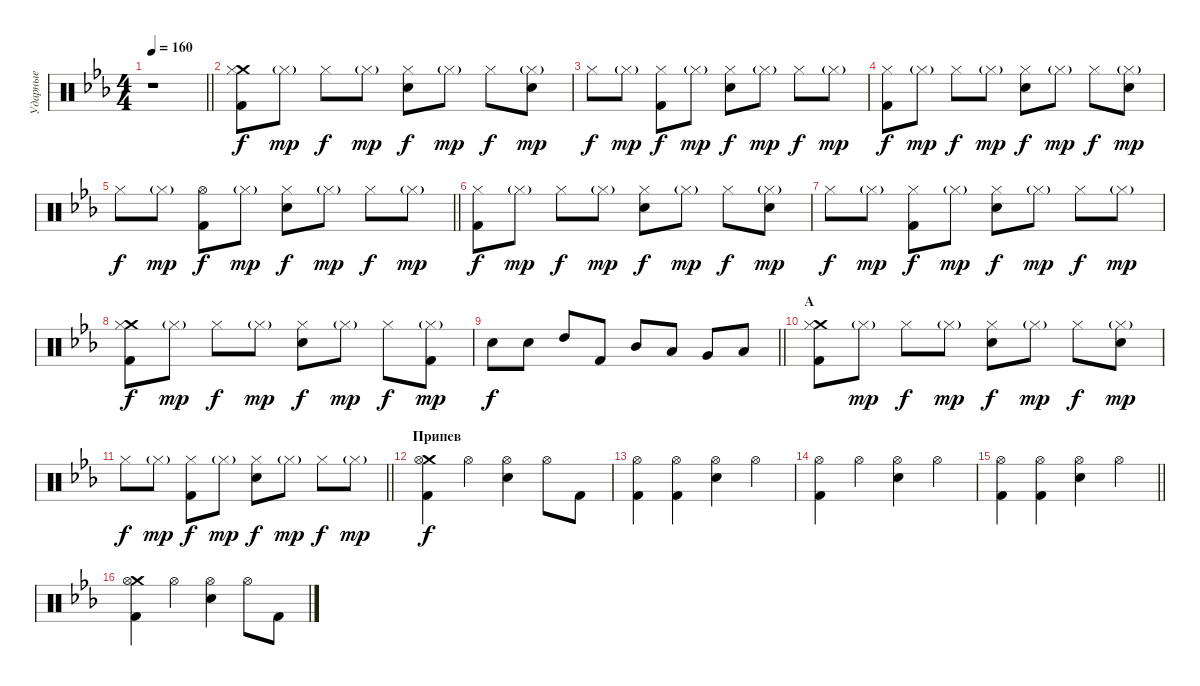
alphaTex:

\track ("Ударные" "Ударные") {instrument percussion}
\staff {score}
\articulation defaults
\ts (4 4)
\tempo 160
\clef neutral
\barLineRight lightlight
\ks cminor
r.1{dy mp} |
("Crash medium (hit)" "Kick (hit) 2" "Hi-Hat (closed)").8{dy f} "Hi-Hat (closed)"{g}.8{dy mp} "Hi-Hat (closed)".8{dy f} "Hi-Hat (closed)"{g}.8{dy mp} ("Electric Snare (hit)" "Hi-Hat (closed)").8{dy f} "Hi-Hat (closed)"{g}.8{dy mp} "Hi-Hat (closed)".8{dy f} ("Electric Snare (hit)" "Hi-Hat (closed)"{g}).8{dy mp} |
"Hi-Hat (closed)".8{dy f} "Hi-Hat (closed)"{g}.8{dy mp} ("Kick (hit) 2" "Hi-Hat (closed)").8{dy f} "Hi-Hat (closed)"{g}.8{dy mp} ("Electric Snare (hit)" "Hi-Hat (closed)").8{dy f} "Hi-Hat (closed)"{g}.8{dy mp} "Hi-Hat (closed)".8{dy f} "Hi-Hat (closed)"{g}.8{dy mp} |
("Kick (hit) 2" "Hi-Hat (closed)").8{dy f} "Hi-Hat (closed)"{g}.8{dy mp} "Hi-Hat (closed)".8{dy f} "Hi-Hat (closed)"{g}.8{dy mp} ("Electric Snare (hit)" "Hi-Hat (closed)").8{dy f} "Hi-Hat (closed)"{g}.8{dy mp} "Hi-Hat (closed)".8{dy f} ("Electric Snare (hit)" "Hi-Hat (closed)"{g}).8{dy mp} |
\barLineRight lightlight "Hi-Hat (closed)".8{dy f} "Hi-Hat (closed)"{g}.8{dy mp}
("Kick (hit) 2" "Hi-Hat (open)").8{dy f} "Hi-Hat (closed)"{g}.8{dy mp} ("Electric Snare (hit)" "Hi-Hat (closed)").8{dy f} "Hi-Hat (closed)"{g}.8{dy mp} "Hi-Hat (closed)".8{dy f} "Hi-Hat (closed)"{g}.8{dy mp} |
("Kick (hit) 2" "Hi-Hat (closed)").8{dy f} "Hi-Hat (closed)"{g}.8{dy mp} "Hi-Hat (closed)".8{dy f} "Hi-Hat (closed)"{g}.8{dy mp} ("Electric Snare (hit)" "Hi-Hat (closed)").8{dy f} "Hi-Hat (closed)"{g}.8{dy mp} "Hi-Hat (closed)".8{dy f} ("Electric Snare (hit)" "Hi-Hat (closed)"{g}).8{dy mp} |
"Hi-Hat (closed)".8{dy f} "Hi-Hat (closed)"{g}.8{dy mp} ("Kick (hit) 2" "Hi-Hat (closed)").8{dy f} "Hi-Hat (closed)"{g}.8{dy mp} ("Electric Snare (hit)" "Hi-Hat (closed)").8{dy f} "Hi-Hat (closed)"{g}.8{dy mp} "Hi-Hat (closed)".8{dy f} "Hi-Hat (closed)"{g}.8{dy mp} |
("Crash medium (hit)" "Kick (hit) 2" "Hi-Hat (closed)").8{dy f} "Hi-Hat (closed)"{g}.8{dy mp} "Hi-Hat (closed)".8{dy f} "Hi-Hat (closed)"{g}.8{dy mp} ("Electric Snare (hit)" "Hi-Hat (closed)").8{dy f} "Hi-Hat (closed)"{g}.8{dy mp} "Hi-Hat (closed)".8{dy f} ("Kick (hit) 2" "Hi-Hat (closed)"{g}).8{dy mp} |
\barLineRight lightlight "Electric Snare (hit)".8{dy f} "Electric Snare (hit)".8 "High Tom (hit)".8 "Kick (hit) 2".8 "Mid Tom (hit)".8 "Low Tom (hit)".8 "Very Low Tom (hit)".8 "Low Floor Tom (hit)".8
|
\section ("" "A")
("Crash medium (hit)" "Kick (hit) 2" "Hi-Hat (closed)").8 "Hi-Hat (closed)"{g}.8{dy mp} "Hi-Hat (closed)".8{dy f} "Hi-Hat (closed)"{g}.8{dy mp} ("Electric Snare (hit)" "Hi-Hat (closed)").8{dy f} "Hi-Hat (closed)"{g}.8{dy mp} "Hi-Hat (closed)".8{dy f} ("Electric Snare (hit)" "Hi-Hat (closed)"{g}).8{dy mp} |
\barLineRight lightlight "Hi-Hat (closed)".8{dy f} "Hi-Hat (closed)"{g}.8{dy mp}
("Kick (hit) 2" "Hi-Hat (closed)").8{dy f} "Hi-Hat (closed)"{g}.8{dy mp} ("Electric Snare (hit)" "Hi-Hat (closed)").8{dy f} "Hi-Hat (closed)"{g}.8{dy mp} "Hi-Hat (closed)".8{dy f} "Hi-Hat (closed)"{g}.8{dy mp} |
\section ("" "Припев")
("Crash medium (hit)" "Kick (hit) 2" "Hi-Hat (open)").4{dy f} "Hi-Hat (open)".4 ("Electric Snare (hit)" "Hi-Hat (open)").4 "Hi-Hat (open)".8 "Kick (hit) 2".8 |
("Kick (hit) 2" "Hi-Hat (open)").4 ("Kick (hit) 2" "Hi-Hat (open)").4 ("Electric Snare (hit)" "Hi-Hat (open)").4 "Hi-Hat (open)".4 |
("Kick (hit) 2" "Hi-Hat (open)").4 "Hi-Hat (open)".4 ("Electric Snare (hit)" "Hi-Hat (open)").4 "Hi-Hat (open)".4 |
\barLineRight lightlight
("Kick (hit) 2" "Hi-Hat (open)").4 ("Kick (hit) 2" "Hi-Hat (open)").4 ("Electric Snare (hit)" "Hi-Hat (open)").4 "Hi-Hat (open)".4 |
("Crash medium (hit)" "Kick (hit) 2" "Hi-Hat (open)").4 "Hi-Hat (open)".4 ("Electric Snare (hit)" "Hi-Hat (open)").4 "Hi-Hat (open)".8 "Kick (hit) 2".8
